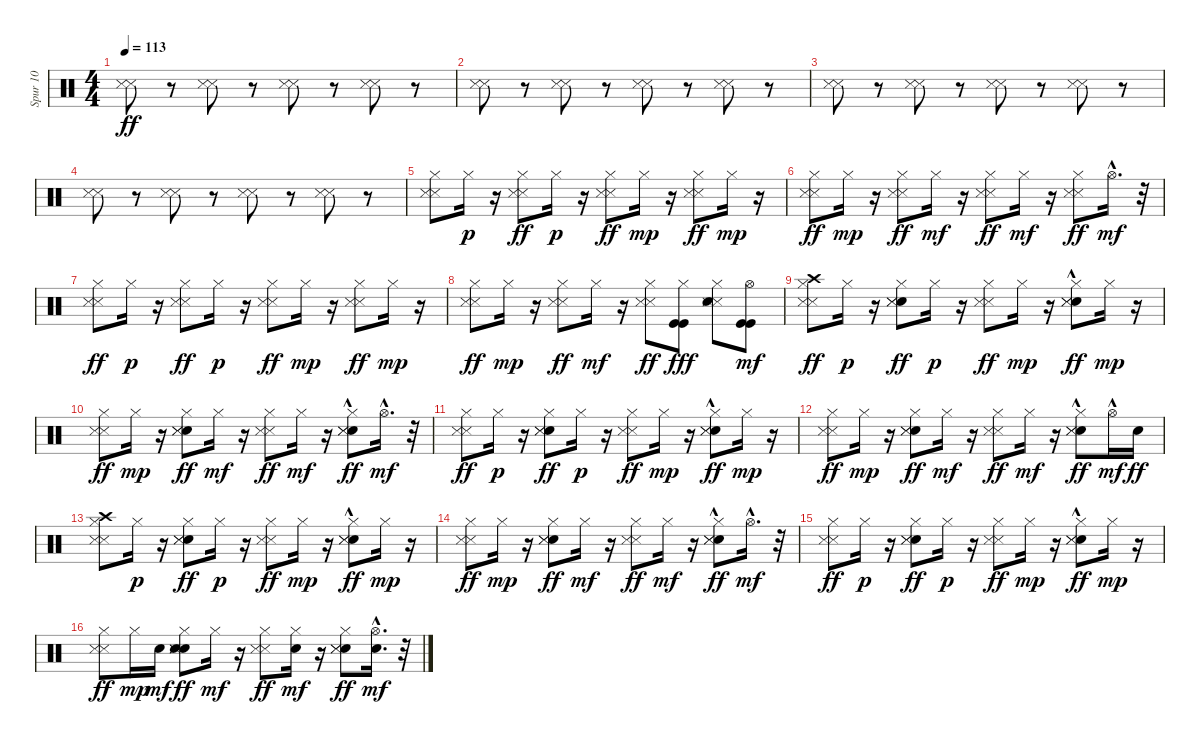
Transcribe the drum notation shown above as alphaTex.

\track ("Spur 10" "Spur 10") {instrument percussion}
\staff {score}
\articulation defaults
\ts (4 4)
\tempo 113
\clef neutral
\ks c
("Snare (side stick) 3" "Snare (side stick) 3").8{dy ff} r.8 ("Snare (side stick) 3" "Snare (side stick) 3").8 r.8 ("Snare (side stick) 3" "Snare (side stick) 3").8{volume 16} r.8 ("Snare (side stick) 3" "Snare (side stick) 3").8 r.8 |
("Snare (side stick) 3" "Snare (side stick) 3").8 r.8 ("Snare (side stick) 3" "Snare (side stick) 3").8 r.8 ("Snare (side stick) 3" "Snare (side stick) 3").8 r.8 ("Snare (side stick) 3" "Snare (side stick) 3").8 r.8 |
("Snare (side stick) 3" "Snare (side stick) 3").8 r.8 ("Snare (side stick) 3" "Snare (side stick) 3").8 r.8 ("Snare (side stick) 3" "Snare (side stick) 3").8 r.8 ("Snare (side stick) 3" "Snare (side stick) 3").8{volume 16} r.8 |
("Snare (side stick) 3" "Snare (side stick) 3").8 r.8 ("Snare (side stick) 3" "Snare (side stick) 3").8 r.8 ("Snare (side stick) 3" "Snare (side stick) 3").8 r.8 ("Snare (side stick) 3" "Snare (side stick) 3").8 r.8 |
("Hi-Hat (closed)" "Snare (side stick) 3" "Snare (side stick) 3").8 "Hi-Hat (closed)".16{dy p} r.16 ("Hi-Hat (closed)" "Snare (side stick) 3" "Snare (side stick) 3").8{dy ff} "Hi-Hat (closed)".16{dy p} r.16 ("Hi-Hat (closed)" "Snare (side stick) 3" "Snare (side stick) 3").8{dy ff} "Hi-Hat (closed)".16{dy mp} r.16 ("Hi-Hat (closed)" "Snare (side stick) 3" "Snare (side stick) 3").8{dy ff} "Hi-Hat (closed)".16{dy mp} r.16 |
("Hi-Hat (closed)" "Snare (side stick) 3" "Snare (side stick) 3").8{dy ff} "Hi-Hat (closed)".16{dy mp} r.16 ("Hi-Hat (closed)" "Snare (side stick) 3" "Snare (side stick) 3").8{dy ff} "Hi-Hat (closed)".16{dy mf} r.16 ("Hi-Hat (closed)" "Snare (side stick) 3" "Snare (side stick) 3").8{dy ff} "Hi-Hat (closed)".16{dy mf} r.16 ("Snare (side stick) 3" "Snare (side stick) 3" "Hi-Hat (closed)").8{dy ff} "Hi-Hat (open)"{hac}.16{d dy mf} r.32 |
("Hi-Hat (closed)" "Snare (side stick) 3" "Snare (side stick) 3").8{dy ff} "Hi-Hat (closed)".16{dy p} r.16 ("Hi-Hat (closed)" "Snare (side stick) 3" "Snare (side stick) 3").8{dy ff} "Hi-Hat (closed)".16{dy p} r.16 ("Hi-Hat (closed)" "Snare (side stick) 3" "Snare (side stick) 3").8{dy ff} "Hi-Hat (closed)".16{dy mp} r.16 ("Hi-Hat (closed)" "Snare (side stick) 3" "Snare (side stick) 3").8{dy ff} "Hi-Hat (closed)".16{dy mp} r.16 |
("Hi-Hat (closed)" "Snare (side stick) 3" "Snare (side stick) 3").8{dy ff} "Hi-Hat (closed)".16{dy mp} r.16 ("Hi-Hat (closed)" "Snare (side stick) 3" "Snare (side stick) 3").8{dy ff} "Hi-Hat (closed)".16{dy mf} r.16 ("Hi-Hat (closed)" "Snare (side stick) 3" "Snare (side stick) 3").8{dy ff} ("Kick (hit)" "Hi-Hat (closed)" "Kick (hit)").8{dy fff} ("Snare (side stick) 3" "Snare (side stick) 3" "Hi-Hat (closed)" "Snare (hit) 2").8 ("Kick (hit)" "Kick (hit)" "Hi-Hat (open)").8{dy mf} |
("Crash high (hit)" "Hi-Hat (closed)" "Snare (side stick) 3" "Snare (side stick) 3").8{dy ff} "Hi-Hat (closed)".16{dy p} r.16 ("Hi-Hat (closed)" "Metronome (bell)" "Snare (side stick) 3" "Snare (side stick) 3").8{dy ff} "Hi-Hat (closed)".16{dy p} r.16 ("Hi-Hat (closed)" "Snare (side stick) 3" "Snare (side stick) 3").8{dy ff} "Hi-Hat (closed)".16{dy mp} r.16 ("Hi-Hat (closed)" "Metronome (bell)"{hac} "Snare (side stick) 3" "Snare (side stick) 3").8{dy ff} "Hi-Hat (closed)".16{dy mp} r.16 |
("Hi-Hat (closed)" "Snare (side stick) 3" "Snare (side stick) 3").8{dy ff} "Hi-Hat (closed)".16{dy mp} r.16 ("Hi-Hat (closed)" "Metronome (bell)" "Snare (side stick) 3" "Snare (side stick) 3").8{dy ff} "Hi-Hat (closed)".16{dy mf} r.16 ("Hi-Hat (closed)" "Snare (side stick) 3" "Snare (side stick) 3").8{dy ff} "Hi-Hat (closed)".16{dy mf} r.16 ("Metronome (bell)"{hac} "Snare (side stick) 3" "Snare (side stick) 3" "Hi-Hat (closed)").8{dy ff} "Hi-Hat (open)"{hac}.16{d dy mf} r.32 |
("Hi-Hat (closed)" "Snare (side stick) 3" "Snare (side stick) 3").8{dy ff} "Hi-Hat (closed)".16{dy p} r.16 ("Hi-Hat (closed)" "Metronome (bell)" "Snare (side stick) 3" "Snare (side stick) 3").8{dy ff} "Hi-Hat (closed)".16{dy p} r.16 ("Hi-Hat (closed)" "Snare (side stick) 3" "Snare (side stick) 3").8{dy ff} "Hi-Hat (closed)".16{dy mp} r.16 ("Hi-Hat (closed)" "Metronome (bell)"{hac} "Snare (side stick) 3" "Snare (side stick) 3").8{dy ff} "Hi-Hat (closed)".16{dy mp} r.16 |
("Hi-Hat (closed)" "Snare (side stick) 3" "Snare (side stick) 3").8{dy ff} "Hi-Hat (closed)".16{dy mp} r.16 ("Hi-Hat (closed)" "Metronome (bell)" "Snare (side stick) 3" "Snare (side stick) 3").8{dy ff} "Hi-Hat (closed)".16{dy mf} r.16 ("Hi-Hat (closed)" "Snare (side stick) 3" "Snare (side stick) 3").8{dy ff} "Hi-Hat (closed)".16{dy mf} r.16 ("Metronome (bell)"{hac} "Snare (side stick) 3" "Snare (side stick) 3" "Hi-Hat (closed)").8{dy ff} "Hi-Hat (open)"{hac}.16{dy mf} "Metronome (bell)".16{dy ff} |
("Hi-Hat (closed)" "Snare (side stick) 3" "Snare (side stick) 3" "Crash high (hit)").8 "Hi-Hat (closed)".16{dy p} r.16 ("Hi-Hat (closed)" "Metronome (bell)" "Snare (side stick) 3" "Snare (side stick) 3").8{dy ff} "Hi-Hat (closed)".16{dy p} r.16 ("Hi-Hat (closed)" "Snare (side stick) 3" "Snare (side stick) 3").8{dy ff} "Hi-Hat (closed)".16{dy mp} r.16 ("Hi-Hat (closed)" "Metronome (bell)"{hac} "Snare (side stick) 3" "Snare (side stick) 3").8{dy ff} "Hi-Hat (closed)".16{dy mp} r.16 |
("Hi-Hat (closed)" "Snare (side stick) 3" "Snare (side stick) 3").8{dy ff} "Hi-Hat (closed)".16{dy mp} r.16 ("Hi-Hat (closed)" "Metronome (bell)" "Snare (side stick) 3" "Snare (side stick) 3").8{dy ff} "Hi-Hat (closed)".16{dy mf} r.16 ("Hi-Hat (closed)" "Snare (side stick) 3" "Snare (side stick) 3").8{dy ff} "Hi-Hat (closed)".16{dy mf} r.16 ("Metronome (bell)"{hac} "Snare (side stick) 3" "Snare (side stick) 3" "Hi-Hat (closed)").8{dy ff} "Hi-Hat (open)"{hac}.16{d dy mf} r.32 |
("Hi-Hat (closed)" "Snare (side stick) 3" "Snare (side stick) 3").8{dy ff} "Hi-Hat (closed)".16{dy p} r.16 ("Hi-Hat (closed)" "Metronome (bell)" "Snare (side stick) 3" "Snare (side stick) 3").8{dy ff} "Hi-Hat (closed)".16{dy p} r.16 ("Hi-Hat (closed)" "Snare (side stick) 3" "Snare (side stick) 3").8{dy ff} "Hi-Hat (closed)".16{dy mp} r.16 ("Hi-Hat (closed)" "Metronome (bell)"{hac} "Snare (side stick) 3" "Snare (side stick) 3").8{dy ff} "Hi-Hat (closed)".16{dy mp} r.16 |
("Hi-Hat (closed)" "Snare (side stick) 3" "Snare (side stick) 3").8{dy ff} "Hi-Hat (closed)".16{dy mp} "Metronome (bell)".16{dy mf} ("Hi-Hat (closed)" "Metronome (bell)" "Metronome (bell)" "Snare (side stick) 3" "Snare (side stick) 3").8{dy ff} "Hi-Hat (closed)".16{dy mf} r.16 ("Hi-Hat (closed)" "Snare (side stick) 3" "Snare (side stick) 3").8{dy ff} ("Metronome (bell)" "Hi-Hat (closed)").16{dy mf} r.16 ("Metronome (bell)" "Snare (side stick) 3" "Snare (side stick) 3" "Hi-Hat (closed)").8{dy ff} ("Metronome (bell)" "Hi-Hat (open)"{hac}).16{d dy mf} r.32
